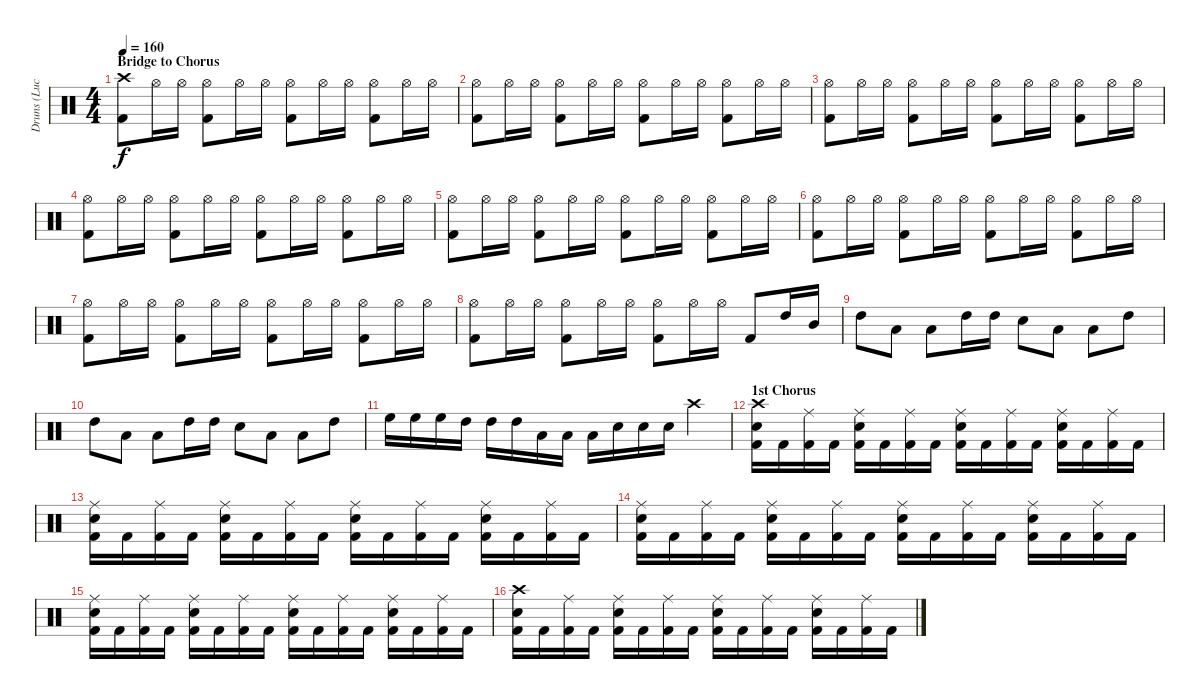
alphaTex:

\track ("Druns (Lucas Zigarti)" "Druns (Luc") {instrument percussion}
\staff {score}
\articulation defaults
\ts (4 4)
\section ("" "Bridge to Chorus")
\tempo 160
\clef neutral
\ks c
("Crash high (hit)" "Kick (hit) 2").8{dy f} "Hi-Hat (open)".16 "Hi-Hat (open)".16 ("Hi-Hat (open)" "Kick (hit) 2").8 "Hi-Hat (open)".16 "Hi-Hat (open)".16 ("Hi-Hat (open)" "Kick (hit) 2").8 "Hi-Hat (open)".16 "Hi-Hat (open)".16 ("Hi-Hat (open)" "Kick (hit) 2").8 "Hi-Hat (open)".16 "Hi-Hat (open)".16 |
("Hi-Hat (open)" "Kick (hit) 2").8 "Hi-Hat (open)".16 "Hi-Hat (open)".16 ("Hi-Hat (open)" "Kick (hit) 2").8 "Hi-Hat (open)".16 "Hi-Hat (open)".16 ("Hi-Hat (open)" "Kick (hit) 2").8 "Hi-Hat (open)".16 "Hi-Hat (open)".16 ("Hi-Hat (open)" "Kick (hit) 2").8 "Hi-Hat (open)".16 "Hi-Hat (open)".16 |
("Hi-Hat (open)" "Kick (hit) 2").8 "Hi-Hat (open)".16 "Hi-Hat (open)".16 ("Hi-Hat (open)" "Kick (hit) 2").8 "Hi-Hat (open)".16 "Hi-Hat (open)".16 ("Hi-Hat (open)" "Kick (hit) 2").8 "Hi-Hat (open)".16 "Hi-Hat (open)".16 ("Hi-Hat (open)" "Kick (hit) 2").8 "Hi-Hat (open)".16 "Hi-Hat (open)".16 |
("Hi-Hat (open)" "Kick (hit) 2").8 "Hi-Hat (open)".16 "Hi-Hat (open)".16 ("Hi-Hat (open)" "Kick (hit) 2").8 "Hi-Hat (open)".16 "Hi-Hat (open)".16 ("Hi-Hat (open)" "Kick (hit) 2").8 "Hi-Hat (open)".16 "Hi-Hat (open)".16 ("Hi-Hat (open)" "Kick (hit) 2").8 "Hi-Hat (open)".16 "Hi-Hat (open)".16 |
("Hi-Hat (open)" "Kick (hit) 2").8 "Hi-Hat (open)".16 "Hi-Hat (open)".16 ("Hi-Hat (open)" "Kick (hit) 2").8 "Hi-Hat (open)".16 "Hi-Hat (open)".16 ("Hi-Hat (open)" "Kick (hit) 2").8 "Hi-Hat (open)".16 "Hi-Hat (open)".16 ("Hi-Hat (open)" "Kick (hit) 2").8 "Hi-Hat (open)".16 "Hi-Hat (open)".16 |
("Hi-Hat (open)" "Kick (hit) 2").8 "Hi-Hat (open)".16 "Hi-Hat (open)".16 ("Hi-Hat (open)" "Kick (hit) 2").8 "Hi-Hat (open)".16 "Hi-Hat (open)".16 ("Hi-Hat (open)" "Kick (hit) 2").8 "Hi-Hat (open)".16 "Hi-Hat (open)".16 ("Hi-Hat (open)" "Kick (hit) 2").8 "Hi-Hat (open)".16 "Hi-Hat (open)".16 |
("Hi-Hat (open)" "Kick (hit) 2").8 "Hi-Hat (open)".16 "Hi-Hat (open)".16 ("Hi-Hat (open)" "Kick (hit) 2").8 "Hi-Hat (open)".16 "Hi-Hat (open)".16 ("Hi-Hat (open)" "Kick (hit) 2").8 "Hi-Hat (open)".16 "Hi-Hat (open)".16 ("Hi-Hat (open)" "Kick (hit) 2").8 "Hi-Hat (open)".16 "Hi-Hat (open)".16 |
("Hi-Hat (open)" "Kick (hit) 2").8 "Hi-Hat (open)".16 "Hi-Hat (open)".16 ("Hi-Hat (open)" "Kick (hit) 2").8 "Hi-Hat (open)".16 "Hi-Hat (open)".16 ("Hi-Hat (open)" "Kick (hit) 2").8 "Hi-Hat (open)".16 "Hi-Hat (open)".16 "Kick (hit) 2".8 "High Tom (hit)".16 "Mid Tom (hit)".16 |
"High Tom (hit)".8 "Low Tom (hit)".8 "Low Tom (hit)".8 "High Tom (hit)".16 "High Tom (hit)".16 "Electric Snare (hit)".8 "Low Tom (hit)".8 "Low Tom (hit)".8 "High Tom (hit)".8 |
"High Tom (hit)".8 "Low Tom (hit)".8 "Low Tom (hit)".8 "High Tom (hit)".16 "High Tom (hit)".16 "Electric Snare (hit)".8 "Low Tom (hit)".8 "Low Tom (hit)".8 "High Tom (hit)".8 |
"High Floor Tom (hit)".16 "High Floor Tom (hit)".16 "High Floor Tom (hit)".16 "High Tom (hit)".16 "High Tom (hit)".16 "High Tom (hit)".16 "Low Tom (hit)".16 "Low Tom (hit)".16 "Low Tom (hit)".16 "Electric Snare (hit)".16 "Electric Snare (hit)".16 "Electric Snare (hit)".16 "Crash high (hit)".4 |
\section ("" "1st Chorus")
("Electric Snare (hit)" "Crash high (hit)" "Kick (hit) 2").16 "Kick (hit) 2".16 ("Ride (middle)" "Kick (hit) 2").16 "Kick (hit) 2".16 ("Electric Snare (hit)" "Ride (middle)" "Kick (hit) 2").16 "Kick (hit) 2".16 ("Ride (middle)" "Kick (hit) 2").16 "Kick (hit) 2".16 ("Electric Snare (hit)" "Ride (middle)" "Kick (hit) 2").16 "Kick (hit) 2".16 ("Ride (middle)" "Kick (hit) 2").16 "Kick (hit) 2".16 ("Electric Snare (hit)" "Ride (middle)" "Kick (hit) 2").16 "Kick (hit) 2".16 ("Ride (middle)" "Kick (hit) 2").16 "Kick (hit) 2".16 |
("Electric Snare (hit)" "Ride (middle)" "Kick (hit) 2").16 "Kick (hit) 2".16 ("Ride (middle)" "Kick (hit) 2").16 "Kick (hit) 2".16 ("Electric Snare (hit)" "Ride (middle)" "Kick (hit) 2").16 "Kick (hit) 2".16 ("Ride (middle)" "Kick (hit) 2").16 "Kick (hit) 2".16 ("Electric Snare (hit)" "Ride (middle)" "Kick (hit) 2").16 "Kick (hit) 2".16 ("Ride (middle)" "Kick (hit) 2").16 "Kick (hit) 2".16 ("Electric Snare (hit)" "Ride (middle)" "Kick (hit) 2").16 "Kick (hit) 2".16 ("Ride (middle)" "Kick (hit) 2").16 "Kick (hit) 2".16 |
("Electric Snare (hit)" "Ride (middle)" "Kick (hit) 2").16 "Kick (hit) 2".16 ("Ride (middle)" "Kick (hit) 2").16 "Kick (hit) 2".16 ("Electric Snare (hit)" "Ride (middle)" "Kick (hit) 2").16 "Kick (hit) 2".16 ("Ride (middle)" "Kick (hit) 2").16 "Kick (hit) 2".16 ("Electric Snare (hit)" "Ride (middle)" "Kick (hit) 2").16 "Kick (hit) 2".16 ("Ride (middle)" "Kick (hit) 2").16 "Kick (hit) 2".16 ("Electric Snare (hit)" "Ride (middle)" "Kick (hit) 2").16 "Kick (hit) 2".16 ("Ride (middle)" "Kick (hit) 2").16 "Kick (hit) 2".16 |
("Electric Snare (hit)" "Ride (middle)" "Kick (hit) 2").16 "Kick (hit) 2".16 ("Ride (middle)" "Kick (hit) 2").16 "Kick (hit) 2".16 ("Electric Snare (hit)" "Ride (middle)" "Kick (hit) 2").16 "Kick (hit) 2".16 ("Ride (middle)" "Kick (hit) 2").16 "Kick (hit) 2".16 ("Electric Snare (hit)" "Ride (middle)" "Kick (hit) 2").16 "Kick (hit) 2".16 ("Ride (middle)" "Kick (hit) 2").16 "Kick (hit) 2".16 ("Electric Snare (hit)" "Ride (middle)" "Kick (hit) 2").16 "Kick (hit) 2".16 ("Ride (middle)" "Kick (hit) 2").16 "Kick (hit) 2".16 |
("Electric Snare (hit)" "Crash high (hit)" "Kick (hit) 2").16 "Kick (hit) 2".16 ("Ride (middle)" "Kick (hit) 2").16 "Kick (hit) 2".16 ("Electric Snare (hit)" "Ride (middle)" "Kick (hit) 2").16 "Kick (hit) 2".16 ("Ride (middle)" "Kick (hit) 2").16 "Kick (hit) 2".16 ("Electric Snare (hit)" "Ride (middle)" "Kick (hit) 2").16 "Kick (hit) 2".16 ("Ride (middle)" "Kick (hit) 2").16 "Kick (hit) 2".16 ("Electric Snare (hit)" "Ride (middle)" "Kick (hit) 2").16 "Kick (hit) 2".16 ("Ride (middle)" "Kick (hit) 2").16 "Kick (hit) 2".16
